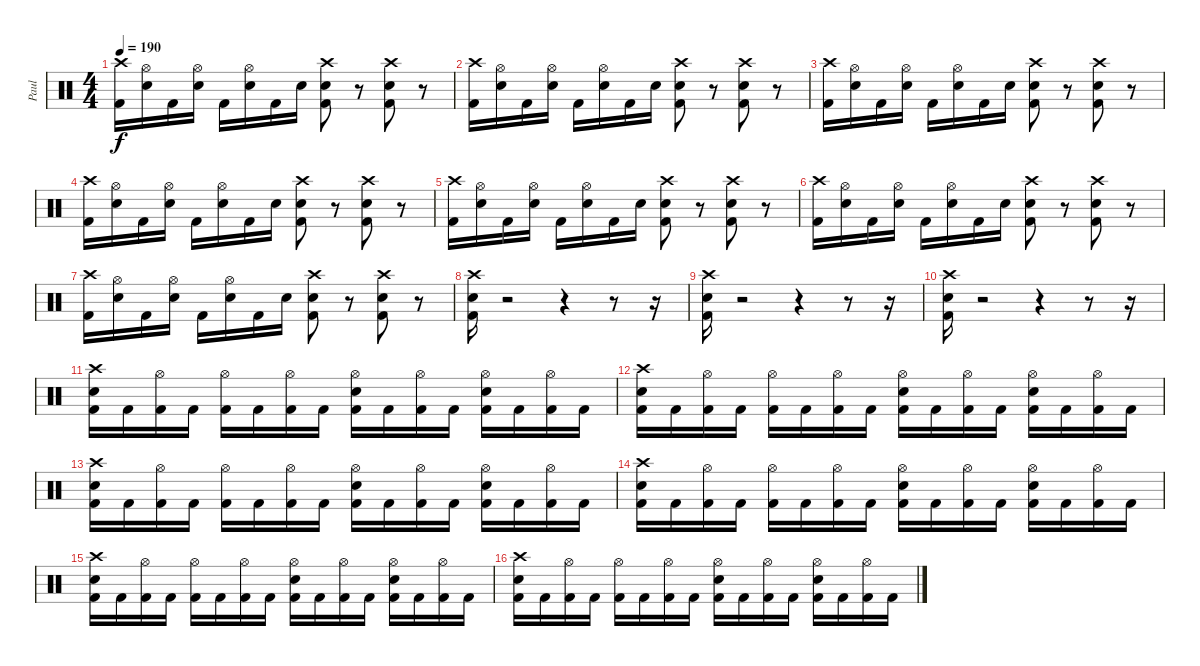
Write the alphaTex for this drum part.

\track ("Paul" "Paul") {instrument percussion}
\staff {score}
\articulation defaults
\ts (4 4)
\tempo 190
\clef neutral
\ks c
("Crash high (hit)" "Kick (hit) 2").16{dy f} ("Hi-Hat (open)" "Snare (hit) 2").16 "Kick (hit) 2".16 ("Hi-Hat (open)" "Snare (hit) 2").16 "Kick (hit) 2".16 ("Hi-Hat (open)" "Snare (hit) 2").16 "Kick (hit) 2".16 "Snare (hit) 2".16 ("Crash high (hit)" "Snare (hit) 2" "Kick (hit) 2").8 r.8 ("Crash high (hit)" "Snare (hit) 2" "Kick (hit) 2").8 r.8 |
("Crash high (hit)" "Kick (hit) 2").16 ("Hi-Hat (open)" "Snare (hit) 2").16 "Kick (hit) 2".16 ("Hi-Hat (open)" "Snare (hit) 2").16 "Kick (hit) 2".16 ("Hi-Hat (open)" "Snare (hit) 2").16 "Kick (hit) 2".16 "Snare (hit) 2".16 ("Crash high (hit)" "Snare (hit) 2" "Kick (hit) 2").8 r.8 ("Crash high (hit)" "Snare (hit) 2" "Kick (hit) 2").8 r.8 |
("Crash high (hit)" "Kick (hit) 2").16 ("Hi-Hat (open)" "Snare (hit) 2").16 "Kick (hit) 2".16 ("Hi-Hat (open)" "Snare (hit) 2").16 "Kick (hit) 2".16 ("Hi-Hat (open)" "Snare (hit) 2").16 "Kick (hit) 2".16 "Snare (hit) 2".16 ("Crash high (hit)" "Snare (hit) 2" "Kick (hit) 2").8 r.8 ("Crash high (hit)" "Snare (hit) 2" "Kick (hit) 2").8 r.8 |
("Crash high (hit)" "Kick (hit) 2").16 ("Hi-Hat (open)" "Snare (hit) 2").16 "Kick (hit) 2".16 ("Hi-Hat (open)" "Snare (hit) 2").16 "Kick (hit) 2".16 ("Hi-Hat (open)" "Snare (hit) 2").16 "Kick (hit) 2".16 "Snare (hit) 2".16 ("Crash high (hit)" "Snare (hit) 2" "Kick (hit) 2").8 r.8 ("Crash high (hit)" "Snare (hit) 2" "Kick (hit) 2").8 r.8 |
("Crash high (hit)" "Kick (hit) 2").16 ("Hi-Hat (open)" "Snare (hit) 2").16 "Kick (hit) 2".16 ("Hi-Hat (open)" "Snare (hit) 2").16 "Kick (hit) 2".16 ("Hi-Hat (open)" "Snare (hit) 2").16 "Kick (hit) 2".16 "Snare (hit) 2".16 ("Crash high (hit)" "Snare (hit) 2" "Kick (hit) 2").8 r.8 ("Crash high (hit)" "Snare (hit) 2" "Kick (hit) 2").8 r.8 |
("Crash high (hit)" "Kick (hit) 2").16 ("Hi-Hat (open)" "Snare (hit) 2").16 "Kick (hit) 2".16 ("Hi-Hat (open)" "Snare (hit) 2").16 "Kick (hit) 2".16 ("Hi-Hat (open)" "Snare (hit) 2").16 "Kick (hit) 2".16 "Snare (hit) 2".16 ("Crash high (hit)" "Snare (hit) 2" "Kick (hit) 2").8 r.8 ("Crash high (hit)" "Snare (hit) 2" "Kick (hit) 2").8 r.8 |
("Crash high (hit)" "Kick (hit) 2").16 ("Hi-Hat (open)" "Snare (hit) 2").16 "Kick (hit) 2".16 ("Hi-Hat (open)" "Snare (hit) 2").16 "Kick (hit) 2".16 ("Hi-Hat (open)" "Snare (hit) 2").16 "Kick (hit) 2".16 "Snare (hit) 2".16 ("Crash high (hit)" "Snare (hit) 2" "Kick (hit) 2").8 r.8 ("Crash high (hit)" "Snare (hit) 2" "Kick (hit) 2").8 r.8 |
("Crash high (hit)" "Snare (hit) 2" "Kick (hit) 2").16 r.2 r.4 r.8 r.16 |
("Crash high (hit)" "Snare (hit) 2" "Kick (hit) 2").16 r.2 r.4 r.8 r.16 |
("Crash high (hit)" "Snare (hit) 2" "Kick (hit) 2").16 r.2 r.4 r.8 r.16 |
("Crash high (hit)" "Snare (hit) 2" "Kick (hit) 2").16 "Kick (hit) 2".16 ("Hi-Hat (open)" "Kick (hit) 2").16 "Kick (hit) 2".16 ("Hi-Hat (open)" "Kick (hit) 2").16 "Kick (hit) 2".16 ("Hi-Hat (open)" "Kick (hit) 2").16 "Kick (hit) 2".16 ("Hi-Hat (open)" "Snare (hit) 2" "Kick (hit) 2").16 "Kick (hit) 2".16 ("Hi-Hat (open)" "Kick (hit) 2").16 "Kick (hit) 2".16 ("Hi-Hat (open)" "Snare (hit) 2" "Kick (hit) 2").16 "Kick (hit) 2".16 ("Hi-Hat (open)" "Kick (hit) 2").16 "Kick (hit) 2".16 |
("Crash high (hit)" "Snare (hit) 2" "Kick (hit) 2").16 "Kick (hit) 2".16 ("Hi-Hat (open)" "Kick (hit) 2").16 "Kick (hit) 2".16 ("Hi-Hat (open)" "Kick (hit) 2").16 "Kick (hit) 2".16 ("Hi-Hat (open)" "Kick (hit) 2").16 "Kick (hit) 2".16 ("Hi-Hat (open)" "Snare (hit) 2" "Kick (hit) 2").16 "Kick (hit) 2".16 ("Hi-Hat (open)" "Kick (hit) 2").16 "Kick (hit) 2".16 ("Hi-Hat (open)" "Snare (hit) 2" "Kick (hit) 2").16 "Kick (hit) 2".16 ("Hi-Hat (open)" "Kick (hit) 2").16 "Kick (hit) 2".16 |
("Crash high (hit)" "Snare (hit) 2" "Kick (hit) 2").16 "Kick (hit) 2".16 ("Hi-Hat (open)" "Kick (hit) 2").16 "Kick (hit) 2".16 ("Hi-Hat (open)" "Kick (hit) 2").16 "Kick (hit) 2".16 ("Hi-Hat (open)" "Kick (hit) 2").16 "Kick (hit) 2".16 ("Hi-Hat (open)" "Snare (hit) 2" "Kick (hit) 2").16 "Kick (hit) 2".16 ("Hi-Hat (open)" "Kick (hit) 2").16 "Kick (hit) 2".16 ("Hi-Hat (open)" "Snare (hit) 2" "Kick (hit) 2").16 "Kick (hit) 2".16 ("Hi-Hat (open)" "Kick (hit) 2").16 "Kick (hit) 2".16 |
("Crash high (hit)" "Snare (hit) 2" "Kick (hit) 2").16 "Kick (hit) 2".16 ("Hi-Hat (open)" "Kick (hit) 2").16 "Kick (hit) 2".16 ("Hi-Hat (open)" "Kick (hit) 2").16 "Kick (hit) 2".16 ("Hi-Hat (open)" "Kick (hit) 2").16 "Kick (hit) 2".16 ("Hi-Hat (open)" "Snare (hit) 2" "Kick (hit) 2").16 "Kick (hit) 2".16 ("Hi-Hat (open)" "Kick (hit) 2").16 "Kick (hit) 2".16 ("Hi-Hat (open)" "Snare (hit) 2" "Kick (hit) 2").16 "Kick (hit) 2".16 ("Hi-Hat (open)" "Kick (hit) 2").16 "Kick (hit) 2".16 |
("Crash high (hit)" "Snare (hit) 2" "Kick (hit) 2").16 "Kick (hit) 2".16 ("Hi-Hat (open)" "Kick (hit) 2").16 "Kick (hit) 2".16 ("Hi-Hat (open)" "Kick (hit) 2").16 "Kick (hit) 2".16 ("Hi-Hat (open)" "Kick (hit) 2").16 "Kick (hit) 2".16 ("Hi-Hat (open)" "Snare (hit) 2" "Kick (hit) 2").16 "Kick (hit) 2".16 ("Hi-Hat (open)" "Kick (hit) 2").16 "Kick (hit) 2".16 ("Hi-Hat (open)" "Snare (hit) 2" "Kick (hit) 2").16 "Kick (hit) 2".16 ("Hi-Hat (open)" "Kick (hit) 2").16 "Kick (hit) 2".16 |
("Crash high (hit)" "Snare (hit) 2" "Kick (hit) 2").16 "Kick (hit) 2".16 ("Hi-Hat (open)" "Kick (hit) 2").16 "Kick (hit) 2".16 ("Hi-Hat (open)" "Kick (hit) 2").16 "Kick (hit) 2".16 ("Hi-Hat (open)" "Kick (hit) 2").16 "Kick (hit) 2".16 ("Hi-Hat (open)" "Snare (hit) 2" "Kick (hit) 2").16 "Kick (hit) 2".16 ("Hi-Hat (open)" "Kick (hit) 2").16 "Kick (hit) 2".16 ("Hi-Hat (open)" "Snare (hit) 2" "Kick (hit) 2").16 "Kick (hit) 2".16 ("Hi-Hat (open)" "Kick (hit) 2").16 "Kick (hit) 2".16
